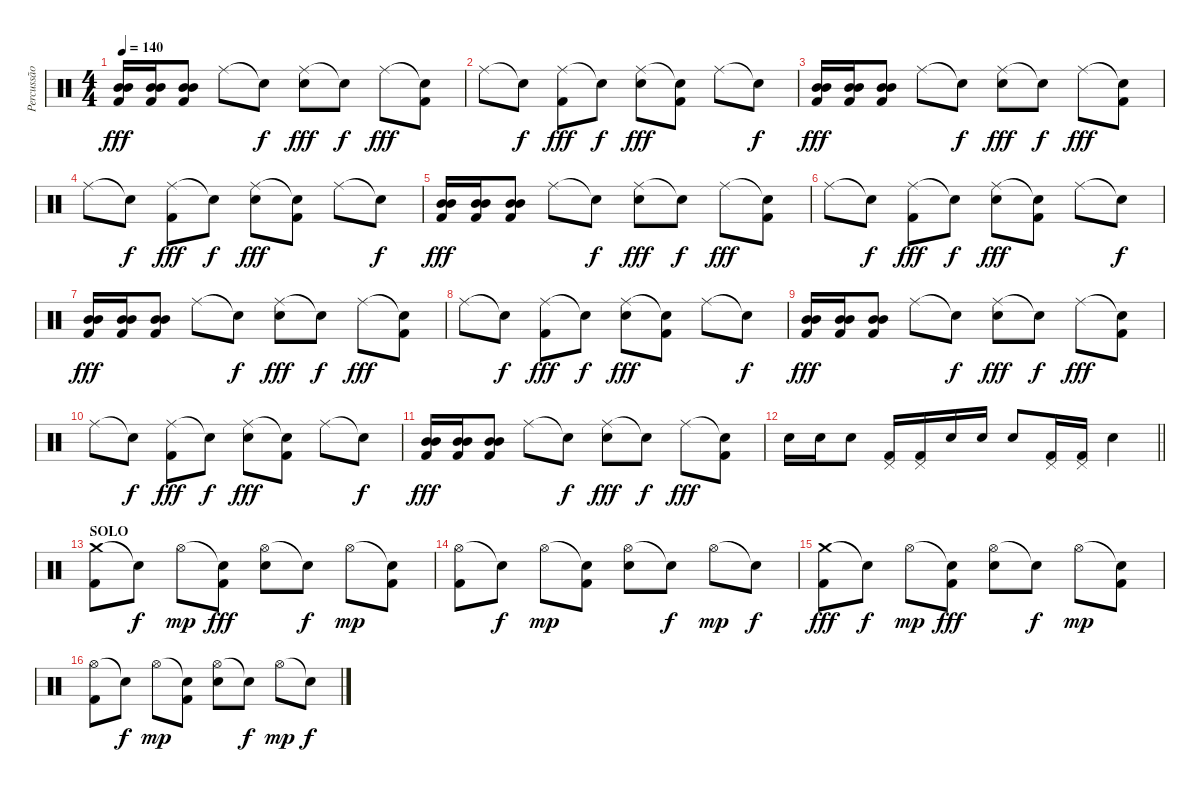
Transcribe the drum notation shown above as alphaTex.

\track ("Percussão" "Percussão") {instrument percussion}
\staff {score}
\articulation defaults
\ts (4 4)
\tempo 140
\clef neutral
\ks c
("Mid Tom (hit)" "Mid Tom (hit)" "Kick (hit) 2").16{dy fff} ("Mid Tom (hit)" "Mid Tom (hit)" "Kick (hit) 2").16 ("Mid Tom (hit)" "Mid Tom (hit)" "Kick (hit) 2").8 "Ride (middle)".8 "Snare (hit)"{t}.8{dy f} ("Ride (middle)" "Electric Snare (hit)").8{dy fff} "Snare (hit)"{t}.8{dy f} "Ride (middle)".8{dy fff} ("Snare (hit)"{t} "Kick (hit) 2").8 |
"Ride (middle)".8 "Snare (hit)"{t}.8{dy f} ("Ride (middle)" "Kick (hit) 2").8{dy fff} "Snare (hit)"{t}.8{dy f} ("Ride (middle)" "Electric Snare (hit)").8{dy fff} ("Snare (hit)"{t} "Kick (hit) 2").8 "Ride (middle)".8 "Snare (hit)"{t}.8{dy f} |
("Mid Tom (hit)" "Mid Tom (hit)" "Kick (hit) 2").16{dy fff} ("Mid Tom (hit)" "Mid Tom (hit)" "Kick (hit) 2").16 ("Mid Tom (hit)" "Mid Tom (hit)" "Kick (hit) 2").8 "Ride (middle)".8 "Snare (hit)"{t}.8{dy f} ("Ride (middle)" "Electric Snare (hit)").8{dy fff} "Snare (hit)"{t}.8{dy f} "Ride (middle)".8{dy fff} ("Snare (hit)"{t} "Kick (hit) 2").8 |
"Ride (middle)".8 "Snare (hit)"{t}.8{dy f} ("Ride (middle)" "Kick (hit) 2").8{dy fff} "Snare (hit)"{t}.8{dy f} ("Ride (middle)" "Electric Snare (hit)").8{dy fff} ("Snare (hit)"{t} "Kick (hit) 2").8 "Ride (middle)".8 "Snare (hit)"{t}.8{dy f} |
("Mid Tom (hit)" "Mid Tom (hit)" "Kick (hit) 2").16{dy fff} ("Mid Tom (hit)" "Mid Tom (hit)" "Kick (hit) 2").16 ("Mid Tom (hit)" "Mid Tom (hit)" "Kick (hit) 2").8 "Ride (middle)".8 "Snare (hit)"{t}.8{dy f} ("Ride (middle)" "Electric Snare (hit)").8{dy fff} "Snare (hit)"{t}.8{dy f} "Ride (middle)".8{dy fff} ("Snare (hit)"{t} "Kick (hit) 2").8 |
"Ride (middle)".8 "Snare (hit)"{t}.8{dy f} ("Ride (middle)" "Kick (hit) 2").8{dy fff} "Snare (hit)"{t}.8{dy f} ("Ride (middle)" "Electric Snare (hit)").8{dy fff} ("Snare (hit)"{t} "Kick (hit) 2").8 "Ride (middle)".8 "Snare (hit)"{t}.8{dy f} |
("Mid Tom (hit)" "Mid Tom (hit)" "Kick (hit) 2").16{dy fff} ("Mid Tom (hit)" "Mid Tom (hit)" "Kick (hit) 2").16 ("Mid Tom (hit)" "Mid Tom (hit)" "Kick (hit) 2").8 "Ride (middle)".8 "Snare (hit)"{t}.8{dy f} ("Ride (middle)" "Electric Snare (hit)").8{dy fff} "Snare (hit)"{t}.8{dy f} "Ride (middle)".8{dy fff} ("Snare (hit)"{t} "Kick (hit) 2").8 |
"Ride (middle)".8 "Snare (hit)"{t}.8{dy f} ("Ride (middle)" "Kick (hit) 2").8{dy fff} "Snare (hit)"{t}.8{dy f} ("Ride (middle)" "Electric Snare (hit)").8{dy fff} ("Snare (hit)"{t} "Kick (hit) 2").8 "Ride (middle)".8 "Snare (hit)"{t}.8{dy f} |
("Mid Tom (hit)" "Mid Tom (hit)" "Kick (hit) 2").16{dy fff} ("Mid Tom (hit)" "Mid Tom (hit)" "Kick (hit) 2").16 ("Mid Tom (hit)" "Mid Tom (hit)" "Kick (hit) 2").8 "Ride (middle)".8 "Snare (hit)"{t}.8{dy f} ("Ride (middle)" "Electric Snare (hit)").8{dy fff} "Snare (hit)"{t}.8{dy f} "Ride (middle)".8{dy fff} ("Snare (hit)"{t} "Kick (hit) 2").8 |
"Ride (middle)".8 "Snare (hit)"{t}.8{dy f} ("Ride (middle)" "Kick (hit) 2").8{dy fff} "Snare (hit)"{t}.8{dy f} ("Ride (middle)" "Electric Snare (hit)").8{dy fff} ("Snare (hit)"{t} "Kick (hit) 2").8 "Ride (middle)".8 "Snare (hit)"{t}.8{dy f} |
("Mid Tom (hit)" "Mid Tom (hit)" "Kick (hit) 2").16{dy fff} ("Mid Tom (hit)" "Mid Tom (hit)" "Kick (hit) 2").16 ("Mid Tom (hit)" "Mid Tom (hit)" "Kick (hit) 2").8 "Ride (middle)".8 "Snare (hit)"{t}.8{dy f} ("Ride (middle)" "Electric Snare (hit)").8{dy fff} "Snare (hit)"{t}.8{dy f} "Ride (middle)".8{dy fff} ("Snare (hit)"{t} "Kick (hit) 2").8 |
\barLineRight lightlight "Electric Snare (hit)".16 "Electric Snare (hit)".16 "Electric Snare (hit)".8
("Pedal Hi-Hat (hit)" "Kick (hit) 2").16 ("Pedal Hi-Hat (hit)" "Kick (hit) 2").16 "Electric Snare (hit)".16 "Electric Snare (hit)".16 "Electric Snare (hit)".8 ("Pedal Hi-Hat (hit)" "Kick (hit) 2").16 ("Pedal Hi-Hat (hit)" "Kick (hit) 2").16 "Electric Snare (hit)".4 |
\section ("" "SOLO")
("Crash medium (hit)" "Kick (hit) 2").8 "Snare (hit)"{t}.8{dy f} "Hi-Hat (open)".8{dy mp} ("Snare (hit)"{t} "Kick (hit) 2").8{dy fff} ("Hi-Hat (open)" "Electric Snare (hit)").8 "Snare (hit)"{t}.8{dy f} "Hi-Hat (open)".8{dy mp} ("Snare (hit)"{t} "Kick (hit) 2").8 |
("Hi-Hat (open)" "Kick (hit) 2").8 "Snare (hit)"{t}.8{dy f} "Hi-Hat (open)".8{dy mp} ("Snare (hit)"{t} "Kick (hit) 2").8 ("Hi-Hat (open)" "Electric Snare (hit)").8 "Snare (hit)"{t}.8{dy f} "Hi-Hat (open)".8{dy mp} "Snare (hit)"{t}.8{dy f} |
("Crash medium (hit)" "Kick (hit) 2").8{dy fff} "Snare (hit)"{t}.8{dy f} "Hi-Hat (open)".8{dy mp} ("Snare (hit)"{t} "Kick (hit) 2").8{dy fff} ("Hi-Hat (open)" "Electric Snare (hit)").8 "Snare (hit)"{t}.8{dy f} "Hi-Hat (open)".8{dy mp} ("Snare (hit)"{t} "Kick (hit) 2").8 |
("Hi-Hat (open)" "Kick (hit) 2").8 "Snare (hit)"{t}.8{dy f} "Hi-Hat (open)".8{dy mp} ("Snare (hit)"{t} "Kick (hit) 2").8 ("Hi-Hat (open)" "Electric Snare (hit)").8 "Snare (hit)"{t}.8{dy f} "Hi-Hat (open)".8{dy mp} "Snare (hit)"{t}.8{dy f}
